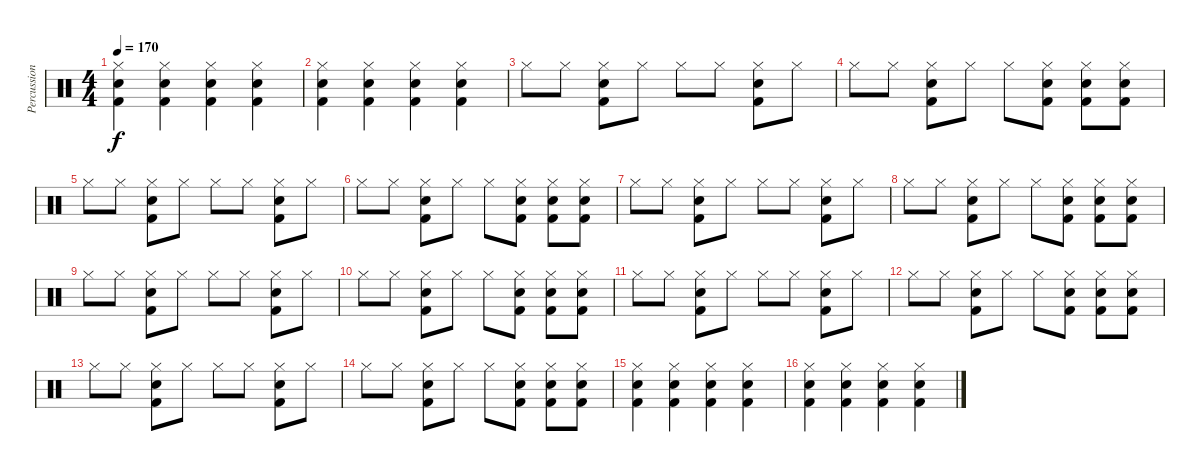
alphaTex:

\track ("Percussion" "Percussion") {instrument percussion}
\staff {score}
\articulation defaults
\ts (4 4)
\tempo 170
\clef neutral
\ks c
("Electric Snare (hit)" "Kick (hit) 2" "Hi-Hat (closed)").4{dy f} ("Electric Snare (hit)" "Kick (hit) 2" "Hi-Hat (closed)").4 ("Electric Snare (hit)" "Kick (hit) 2" "Hi-Hat (closed)").4 ("Electric Snare (hit)" "Kick (hit) 2" "Hi-Hat (closed)").4 |
("Electric Snare (hit)" "Hi-Hat (closed)" "Kick (hit) 2").4 ("Electric Snare (hit)" "Hi-Hat (closed)" "Kick (hit) 2").4 ("Electric Snare (hit)" "Hi-Hat (closed)" "Kick (hit) 2").4 ("Electric Snare (hit)" "Hi-Hat (closed)" "Kick (hit) 2").4 |
"Hi-Hat (closed)".8 "Hi-Hat (closed)".8 ("Electric Snare (hit)" "Hi-Hat (closed)" "Kick (hit) 2").8 "Hi-Hat (closed)".8 "Hi-Hat (closed)".8 "Hi-Hat (closed)".8 ("Electric Snare (hit)" "Hi-Hat (closed)" "Kick (hit) 2").8 "Hi-Hat (closed)".8 |
"Hi-Hat (closed)".8 "Hi-Hat (closed)".8 ("Electric Snare (hit)" "Hi-Hat (closed)" "Kick (hit) 2").8 "Hi-Hat (closed)".8 "Hi-Hat (closed)".8 ("Electric Snare (hit)" "Hi-Hat (closed)" "Kick (hit) 2").8 ("Electric Snare (hit)" "Hi-Hat (closed)" "Kick (hit) 2").8 ("Electric Snare (hit)" "Hi-Hat (closed)" "Kick (hit) 2").8 |
"Hi-Hat (closed)".8 "Hi-Hat (closed)".8 ("Electric Snare (hit)" "Hi-Hat (closed)" "Kick (hit) 2").8 "Hi-Hat (closed)".8 "Hi-Hat (closed)".8 "Hi-Hat (closed)".8 ("Electric Snare (hit)" "Hi-Hat (closed)" "Kick (hit) 2").8 "Hi-Hat (closed)".8 |
"Hi-Hat (closed)".8 "Hi-Hat (closed)".8 ("Electric Snare (hit)" "Hi-Hat (closed)" "Kick (hit) 2").8 "Hi-Hat (closed)".8 "Hi-Hat (closed)".8 ("Electric Snare (hit)" "Hi-Hat (closed)" "Kick (hit) 2").8 ("Electric Snare (hit)" "Hi-Hat (closed)" "Kick (hit) 2").8 ("Electric Snare (hit)" "Hi-Hat (closed)" "Kick (hit) 2").8 |
"Hi-Hat (closed)".8 "Hi-Hat (closed)".8 ("Electric Snare (hit)" "Hi-Hat (closed)" "Kick (hit) 2").8 "Hi-Hat (closed)".8 "Hi-Hat (closed)".8 "Hi-Hat (closed)".8 ("Electric Snare (hit)" "Hi-Hat (closed)" "Kick (hit) 2").8 "Hi-Hat (closed)".8 |
"Hi-Hat (closed)".8 "Hi-Hat (closed)".8 ("Electric Snare (hit)" "Hi-Hat (closed)" "Kick (hit) 2").8 "Hi-Hat (closed)".8 "Hi-Hat (closed)".8 ("Electric Snare (hit)" "Hi-Hat (closed)" "Kick (hit) 2").8 ("Electric Snare (hit)" "Hi-Hat (closed)" "Kick (hit) 2").8 ("Electric Snare (hit)" "Hi-Hat (closed)" "Kick (hit) 2").8 |
"Hi-Hat (closed)".8 "Hi-Hat (closed)".8 ("Electric Snare (hit)" "Hi-Hat (closed)" "Kick (hit) 2").8 "Hi-Hat (closed)".8 "Hi-Hat (closed)".8 "Hi-Hat (closed)".8 ("Electric Snare (hit)" "Hi-Hat (closed)" "Kick (hit) 2").8 "Hi-Hat (closed)".8 |
"Hi-Hat (closed)".8 "Hi-Hat (closed)".8 ("Electric Snare (hit)" "Hi-Hat (closed)" "Kick (hit) 2").8 "Hi-Hat (closed)".8 "Hi-Hat (closed)".8 ("Electric Snare (hit)" "Hi-Hat (closed)" "Kick (hit) 2").8 ("Electric Snare (hit)" "Hi-Hat (closed)" "Kick (hit) 2").8 ("Electric Snare (hit)" "Hi-Hat (closed)" "Kick (hit) 2").8 |
"Hi-Hat (closed)".8 "Hi-Hat (closed)".8 ("Electric Snare (hit)" "Hi-Hat (closed)" "Kick (hit) 2").8 "Hi-Hat (closed)".8 "Hi-Hat (closed)".8 "Hi-Hat (closed)".8 ("Electric Snare (hit)" "Hi-Hat (closed)" "Kick (hit) 2").8 "Hi-Hat (closed)".8 |
"Hi-Hat (closed)".8 "Hi-Hat (closed)".8 ("Electric Snare (hit)" "Hi-Hat (closed)" "Kick (hit) 2").8 "Hi-Hat (closed)".8 "Hi-Hat (closed)".8 ("Electric Snare (hit)" "Hi-Hat (closed)" "Kick (hit) 2").8 ("Electric Snare (hit)" "Hi-Hat (closed)" "Kick (hit) 2").8 ("Electric Snare (hit)" "Hi-Hat (closed)" "Kick (hit) 2").8 |
"Hi-Hat (closed)".8 "Hi-Hat (closed)".8 ("Electric Snare (hit)" "Hi-Hat (closed)" "Kick (hit) 2").8 "Hi-Hat (closed)".8 "Hi-Hat (closed)".8 "Hi-Hat (closed)".8 ("Electric Snare (hit)" "Hi-Hat (closed)" "Kick (hit) 2").8 "Hi-Hat (closed)".8 |
"Hi-Hat (closed)".8 "Hi-Hat (closed)".8 ("Electric Snare (hit)" "Hi-Hat (closed)" "Kick (hit) 2").8 "Hi-Hat (closed)".8 "Hi-Hat (closed)".8 ("Electric Snare (hit)" "Hi-Hat (closed)" "Kick (hit) 2").8 ("Electric Snare (hit)" "Hi-Hat (closed)" "Kick (hit) 2").8 ("Electric Snare (hit)" "Hi-Hat (closed)" "Kick (hit) 2").8 |
("Electric Snare (hit)" "Kick (hit) 2" "Hi-Hat (closed)").4 ("Electric Snare (hit)" "Kick (hit) 2" "Hi-Hat (closed)").4 ("Electric Snare (hit)" "Kick (hit) 2" "Hi-Hat (closed)").4 ("Electric Snare (hit)" "Kick (hit) 2" "Hi-Hat (closed)").4 |
("Electric Snare (hit)" "Hi-Hat (closed)" "Kick (hit) 2").4 ("Electric Snare (hit)" "Hi-Hat (closed)" "Kick (hit) 2").4 ("Electric Snare (hit)" "Hi-Hat (closed)" "Kick (hit) 2").4 ("Electric Snare (hit)" "Hi-Hat (closed)" "Kick (hit) 2").4
